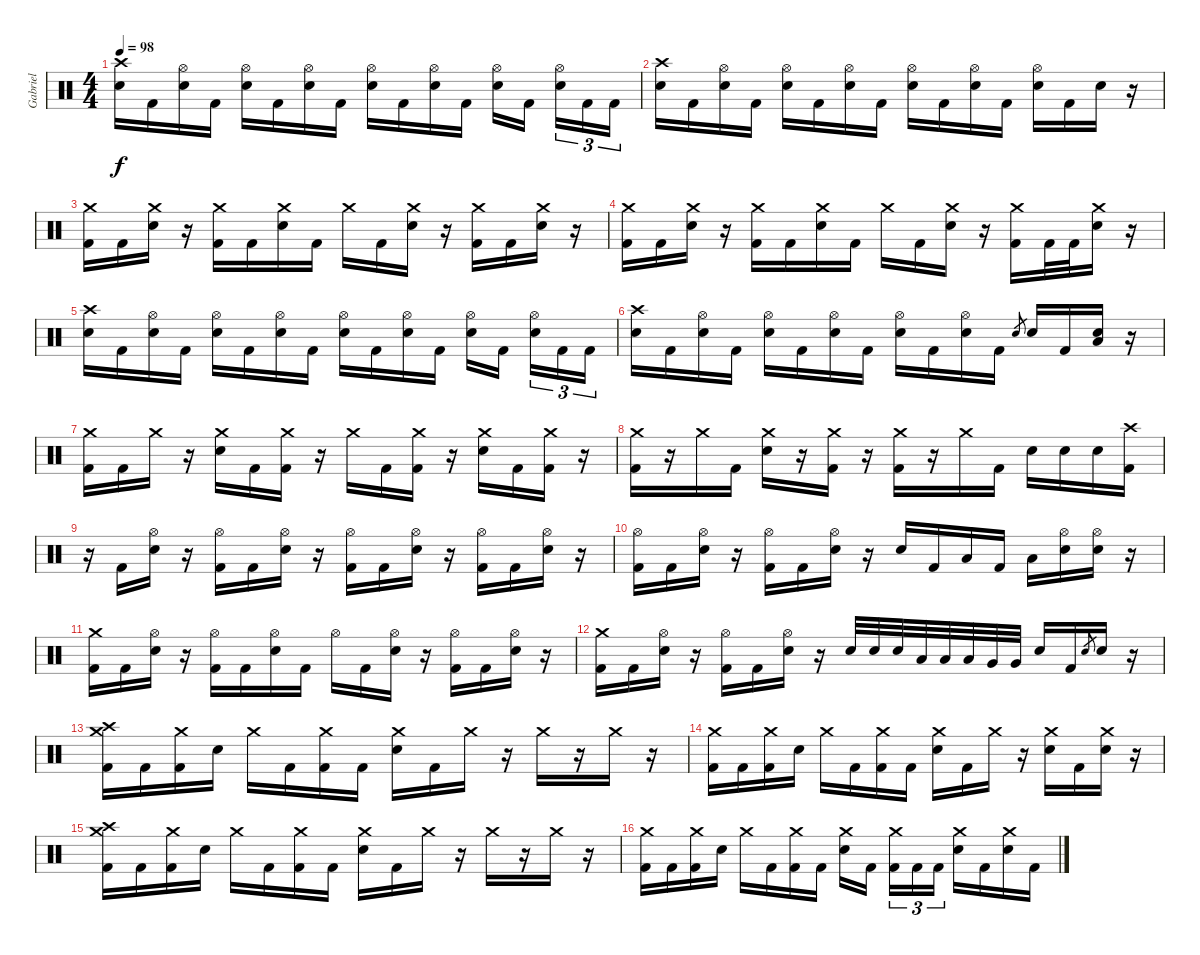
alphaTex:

\track ("Gabriel" "Gabriel") {instrument percussion}
\staff {score}
\articulation defaults
\ts (4 4)
\tempo 98
\clef neutral
\ks c
("Crash high (hit)" "Electric Snare (hit)").16{dy f} "Kick (hit) 2".16 ("Hi-Hat (open)" "Electric Snare (hit)").16 "Kick (hit) 2".16 ("Hi-Hat (open)" "Electric Snare (hit)").16 "Kick (hit) 2".16 ("Hi-Hat (open)" "Electric Snare (hit)").16 "Kick (hit) 2".16 ("Hi-Hat (open)" "Electric Snare (hit)").16 "Kick (hit) 2".16 ("Hi-Hat (open)" "Electric Snare (hit)").16 "Kick (hit) 2".16 ("Hi-Hat (open)" "Electric Snare (hit)").16 "Kick (hit) 2".16{beam splitsecondary} ("Hi-Hat (open)" "Electric Snare (hit)").16{tu (3 2)} "Kick (hit) 2".16{tu (3 2)} "Kick (hit) 2".16{tu (3 2)} |
("Crash high (hit)" "Electric Snare (hit)").16 "Kick (hit) 2".16 ("Hi-Hat (open)" "Electric Snare (hit)").16 "Kick (hit) 2".16 ("Hi-Hat (open)" "Electric Snare (hit)").16 "Kick (hit) 2".16 ("Hi-Hat (open)" "Electric Snare (hit)").16 "Kick (hit) 2".16 ("Hi-Hat (open)" "Electric Snare (hit)").16 "Kick (hit) 2".16 ("Hi-Hat (open)" "Electric Snare (hit)").16 "Kick (hit) 2".16 ("Hi-Hat (open)" "Electric Snare (hit)").16 "Kick (hit) 2".16 "Electric Snare (hit)".16 r.16 |
("Crash medium (hit)" "Kick (hit) 2").16 "Kick (hit) 2".16 ("Crash medium (hit)" "Electric Snare (hit)").16 r.16 ("Crash medium (hit)" "Kick (hit) 2").16 "Kick (hit) 2".16 ("Crash medium (hit)" "Electric Snare (hit)").16 "Kick (hit) 2".16 "Crash medium (hit)".16 "Kick (hit) 2".16 ("Crash medium (hit)" "Electric Snare (hit)").16 r.16 ("Crash medium (hit)" "Kick (hit) 2").16 "Kick (hit) 2".16 ("Crash medium (hit)" "Electric Snare (hit)").16 r.16 |
("Crash medium (hit)" "Kick (hit) 2").16 "Kick (hit) 2".16 ("Crash medium (hit)" "Electric Snare (hit)").16 r.16 ("Crash medium (hit)" "Kick (hit) 2").16 "Kick (hit) 2".16 ("Crash medium (hit)" "Electric Snare (hit)").16 "Kick (hit) 2".16 "Crash medium (hit)".16 "Kick (hit) 2".16 ("Crash medium (hit)" "Electric Snare (hit)").16 r.16 ("Crash medium (hit)" "Kick (hit) 2").16 "Kick (hit) 2".32 "Kick (hit) 2".32 ("Crash medium (hit)" "Electric Snare (hit)").16 r.16 |
("Crash high (hit)" "Electric Snare (hit)").16 "Kick (hit) 2".16 ("Hi-Hat (open)" "Electric Snare (hit)").16 "Kick (hit) 2".16 ("Hi-Hat (open)" "Electric Snare (hit)").16 "Kick (hit) 2".16 ("Hi-Hat (open)" "Electric Snare (hit)").16 "Kick (hit) 2".16 ("Hi-Hat (open)" "Electric Snare (hit)").16 "Kick (hit) 2".16 ("Hi-Hat (open)" "Electric Snare (hit)").16 "Kick (hit) 2".16 ("Hi-Hat (open)" "Electric Snare (hit)").16 "Kick (hit) 2".16{beam splitsecondary} ("Hi-Hat (open)" "Electric Snare (hit)").16{tu (3 2)} "Kick (hit) 2".16{tu (3 2)} "Kick (hit) 2".16{tu (3 2)} |
("Crash high (hit)" "Electric Snare (hit)").16 "Kick (hit) 2".16 ("Hi-Hat (open)" "Electric Snare (hit)").16 "Kick (hit) 2".16 ("Hi-Hat (open)" "Electric Snare (hit)").16 "Kick (hit) 2".16 ("Hi-Hat (open)" "Electric Snare (hit)").16 "Kick (hit) 2".16 ("Hi-Hat (open)" "Electric Snare (hit)").16 "Kick (hit) 2".16 ("Hi-Hat (open)" "Electric Snare (hit)").16 "Kick (hit) 2".16 "Electric Snare (hit)".8{gr} "Electric Snare (hit)".16 "Kick (hit) 2".16 ("Low Tom (hit)" "Electric Snare (hit)").16 r.16 |
("Crash medium (hit)" "Kick (hit) 2").16 "Kick (hit) 2".16 "Crash medium (hit)".16 r.16 ("Crash medium (hit)" "Electric Snare (hit)").16 "Kick (hit) 2".16 ("Crash medium (hit)" "Kick (hit) 2").16 r.16 "Crash medium (hit)".16 "Kick (hit) 2".16 ("Crash medium (hit)" "Kick (hit) 2").16 r.16 ("Crash medium (hit)" "Electric Snare (hit)").16 "Kick (hit) 2".16 ("Crash medium (hit)" "Kick (hit) 2").16 r.16 |
("Crash medium (hit)" "Kick (hit) 2").16 r.16 "Crash medium (hit)".16 "Kick (hit) 2".16 ("Crash medium (hit)" "Electric Snare (hit)").16 r.16 ("Crash medium (hit)" "Kick (hit) 2").16 r.16 ("Crash medium (hit)" "Kick (hit) 2").16 r.16 "Crash medium (hit)".16 "Kick (hit) 2".16 "Electric Snare (hit)".16 "Electric Snare (hit)".16 "Electric Snare (hit)".16 ("Crash high (hit)" "Kick (hit) 2").16 |
r.16 "Kick (hit) 2".16 ("Hi-Hat (open)" "Electric Snare (hit)").16 r.16 ("Hi-Hat (open)" "Kick (hit) 2").16 "Kick (hit) 2".16 ("Hi-Hat (open)" "Electric Snare (hit)").16 r.16 ("Hi-Hat (open)" "Kick (hit) 2").16 "Kick (hit) 2".16 ("Hi-Hat (open)" "Electric Snare (hit)").16 r.16 ("Hi-Hat (open)" "Kick (hit) 2").16 "Kick (hit) 2".16 ("Hi-Hat (open)" "Electric Snare (hit)").16 r.16 |
("Hi-Hat (open)" "Kick (hit) 2").16 "Kick (hit) 2".16 ("Hi-Hat (open)" "Electric Snare (hit)").16 r.16 ("Hi-Hat (open)" "Kick (hit) 2").16 "Kick (hit) 2".16 ("Hi-Hat (open)" "Electric Snare (hit)").16 r.16 "Electric Snare (hit)".16 "Kick (hit) 2".16 "Low Tom (hit)".16 "Kick (hit) 2".16 "Low Tom (hit)".16 ("Hi-Hat (open)" "Electric Snare (hit)").16 ("Hi-Hat (open)" "Electric Snare (hit)").16 r.16 |
("Crash medium (hit)" "Kick (hit) 2").16 "Kick (hit) 2".16 ("Hi-Hat (open)" "Electric Snare (hit)").16 r.16 ("Hi-Hat (open)" "Kick (hit) 2").16 "Kick (hit) 2".16 ("Hi-Hat (open)" "Electric Snare (hit)").16 "Kick (hit) 2".16 "Hi-Hat (open)".16 "Kick (hit) 2".16 ("Hi-Hat (open)" "Electric Snare (hit)").16 r.16 ("Hi-Hat (open)" "Kick (hit) 2").16 "Kick (hit) 2".16 ("Hi-Hat (open)" "Electric Snare (hit)").16 r.16 |
("Crash medium (hit)" "Kick (hit) 2").16 "Kick (hit) 2".16 ("Hi-Hat (open)" "Electric Snare (hit)").16 r.16 ("Hi-Hat (open)" "Kick (hit) 2").16 "Kick (hit) 2".16 ("Hi-Hat (open)" "Electric Snare (hit)").16 r.16 "Electric Snare (hit)".32 "Electric Snare (hit)".32 "Electric Snare (hit)".32 "Low Tom (hit)".32 "Low Tom (hit)".32 "Low Tom (hit)".32 "Very Low Tom (hit)".32 "Very Low Tom (hit)".32 "Electric Snare (hit)".16 "Kick (hit) 2".16 "Electric Snare (hit)".8{gr} "Electric Snare (hit)".16 r.16 |
("Crash medium (hit)" "Crash high (hit)" "Kick (hit) 2").16 "Kick (hit) 2".16 ("Crash medium (hit)" "Kick (hit) 2").16 "Electric Snare (hit)".16 "Crash medium (hit)".16 "Kick (hit) 2".16 ("Crash medium (hit)" "Kick (hit) 2").16 "Kick (hit) 2".16 ("Crash medium (hit)" "Electric Snare (hit)").16 "Kick (hit) 2".16 "Crash medium (hit)".16 r.16 "Crash medium (hit)".16 r.16 "Crash medium (hit)".16 r.16 |
("Crash medium (hit)" "Kick (hit) 2").16 "Kick (hit) 2".16 ("Crash medium (hit)" "Kick (hit) 2").16 "Electric Snare (hit)".16 "Crash medium (hit)".16 "Kick (hit) 2".16 ("Crash medium (hit)" "Kick (hit) 2").16 "Kick (hit) 2".16 ("Crash medium (hit)" "Electric Snare (hit)").16 "Kick (hit) 2".16 "Crash medium (hit)".16 r.16 ("Crash medium (hit)" "Electric Snare (hit)").16 "Kick (hit) 2".16 ("Crash medium (hit)" "Electric Snare (hit)").16 r.16 |
("Crash medium (hit)" "Crash high (hit)" "Kick (hit) 2").16 "Kick (hit) 2".16 ("Crash medium (hit)" "Kick (hit) 2").16 "Electric Snare (hit)".16 "Crash medium (hit)".16 "Kick (hit) 2".16 ("Crash medium (hit)" "Kick (hit) 2").16 "Kick (hit) 2".16 ("Crash medium (hit)" "Electric Snare (hit)").16 "Kick (hit) 2".16 "Crash medium (hit)".16 r.16 "Crash medium (hit)".16 r.16 "Crash medium (hit)".16 r.16 |
("Crash medium (hit)" "Kick (hit) 2").16 "Kick (hit) 2".16 ("Crash medium (hit)" "Kick (hit) 2").16 "Electric Snare (hit)".16 "Crash medium (hit)".16 "Kick (hit) 2".16 ("Crash medium (hit)" "Kick (hit) 2").16 "Kick (hit) 2".16 ("Crash medium (hit)" "Electric Snare (hit)").16 "Kick (hit) 2".16{beam splitsecondary} ("Crash medium (hit)" "Kick (hit) 2").16{tu (3 2)} "Kick (hit) 2".16{tu (3 2)} "Kick (hit) 2".16{tu (3 2)} ("Crash medium (hit)" "Electric Snare (hit)").16 "Kick (hit) 2".16 ("Crash medium (hit)" "Electric Snare (hit)").16 "Kick (hit) 2".16
